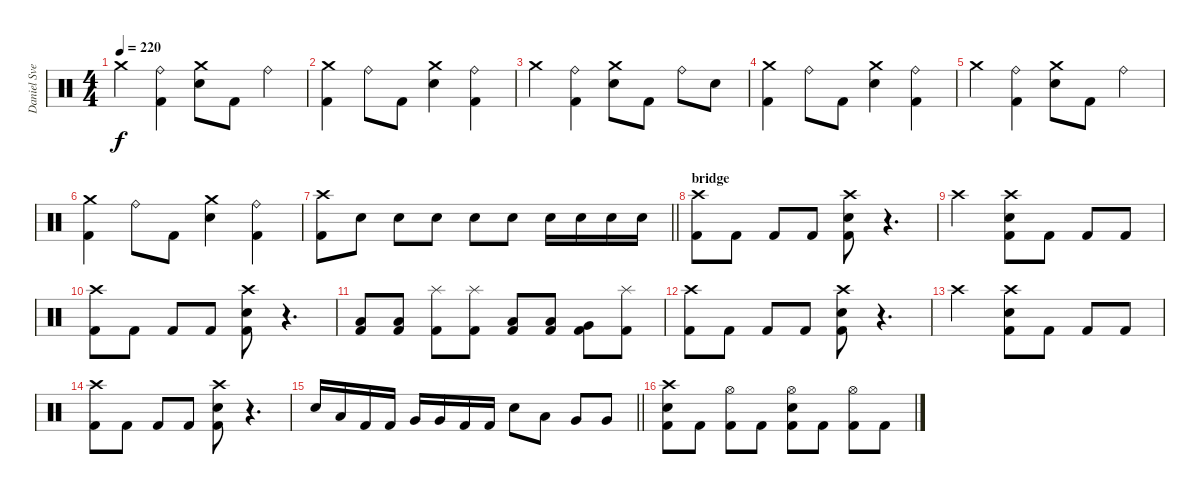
\track ("Daniel Svensson" "Daniel Sve") {instrument percussion}
\staff {score}
\articulation defaults
\ts (4 4)
\tempo 220
\clef neutral
\ks c "Crash medium (hit)".4{dy f}
("Ride (bell)" "Kick (hit) 2").4 ("Crash medium (hit)" "Electric Snare (hit)").8 "Kick (hit) 2".8 "Ride (bell)".4 |
("Crash medium (hit)" "Kick (hit) 2").4 "Ride (bell)".8 "Kick (hit) 2".8 ("Crash medium (hit)" "Electric Snare (hit)").4 ("Ride (bell)" "Kick (hit) 2").4 |
"Crash medium (hit)".4 ("Ride (bell)" "Kick (hit) 2").4 ("Crash medium (hit)" "Electric Snare (hit)").8 "Kick (hit) 2".8 "Ride (bell)".8 "Electric Snare (hit)".8 |
("Crash medium (hit)" "Kick (hit) 2").4 "Ride (bell)".8 "Kick (hit) 2".8 ("Crash medium (hit)" "Electric Snare (hit)").4 ("Ride (bell)" "Kick (hit) 2").4 |
"Crash medium (hit)".4 ("Ride (bell)" "Kick (hit) 2").4 ("Crash medium (hit)" "Electric Snare (hit)").8 "Kick (hit) 2".8 "Ride (bell)".4 |
("Crash medium (hit)" "Kick (hit) 2").4 "Ride (bell)".8 "Kick (hit) 2".8 ("Crash medium (hit)" "Electric Snare (hit)").4 ("Ride (bell)" "Kick (hit) 2").4 |
\barLineRight lightlight
("Crash high (hit)" "Kick (hit) 2").8 "Electric Snare (hit)".8 "Electric Snare (hit)".8 "Electric Snare (hit)".8 "Electric Snare (hit)".8 "Electric Snare (hit)".8 "Electric Snare (hit)".16 "Electric Snare (hit)".16 "Electric Snare (hit)".16 "Electric Snare (hit)".16 |
\section ("" "bridge")
("Crash high (hit)" "Kick (hit) 2").8 "Kick (hit) 2".8 "Kick (hit) 2".8 "Kick (hit) 2".8 ("Crash high (hit)" "Electric Snare (hit)" "Kick (hit) 2").8 r.4{d} |
"Crash high (hit)".2 ("Crash high (hit)" "Electric Snare (hit)" "Kick (hit) 2").8 "Kick (hit) 2".8 "Kick (hit) 2".8 "Kick (hit) 2".8 |
("Crash high (hit)" "Kick (hit) 2").8 "Kick (hit) 2".8 "Kick (hit) 2".8 "Kick (hit) 2".8 ("Crash high (hit)" "Electric Snare (hit)" "Kick (hit) 2").8 r.4{d} |
("Low Tom (hit)" "Kick (hit) 2").8 ("Low Tom (hit)" "Kick (hit) 2").8 ("Splash (hit)" "Kick (hit) 2").8 ("Splash (hit)" "Kick (hit) 2").8 ("Low Tom (hit)" "Kick (hit) 2").8 ("Low Tom (hit)" "Kick (hit) 2").8 ("Very Low Tom (hit)" "Kick (hit) 2").8 ("Splash (hit)" "Kick (hit) 2").8 |
("Crash high (hit)" "Kick (hit) 2").8 "Kick (hit) 2".8 "Kick (hit) 2".8 "Kick (hit) 2".8 ("Crash high (hit)" "Electric Snare (hit)" "Kick (hit) 2").8 r.4{d} |
"Crash high (hit)".2 ("Crash high (hit)" "Electric Snare (hit)" "Kick (hit) 2").8 "Kick (hit) 2".8 "Kick (hit) 2".8 "Kick (hit) 2".8 |
("Crash high (hit)" "Kick (hit) 2").8 "Kick (hit) 2".8 "Kick (hit) 2".8 "Kick (hit) 2".8 ("Crash high (hit)" "Electric Snare (hit)" "Kick (hit) 2").8 r.4{d} |
\barLineRight lightlight "Electric Snare (hit)".16 "Low Tom (hit)".16 "Kick (hit) 2".16 "Kick (hit) 2".16 "Very Low Tom (hit)".16 "Very Low Tom (hit)".16 "Kick (hit) 2".16 "Kick (hit) 2".16 "Electric Snare (hit)".8 "Low Tom (hit)".8 "Very Low Tom (hit)".8 "Very Low Tom (hit)".8
|
("Crash high (hit)" "Electric Snare (hit)" "Kick (hit) 2").8 "Kick (hit) 2".8 ("Hi-Hat (open)" "Kick (hit) 2").8 "Kick (hit) 2".8 ("Hi-Hat (open)" "Electric Snare (hit)" "Kick (hit) 2").8 "Kick (hit) 2".8 ("Hi-Hat (open)" "Kick (hit) 2").8 "Kick (hit) 2".8
